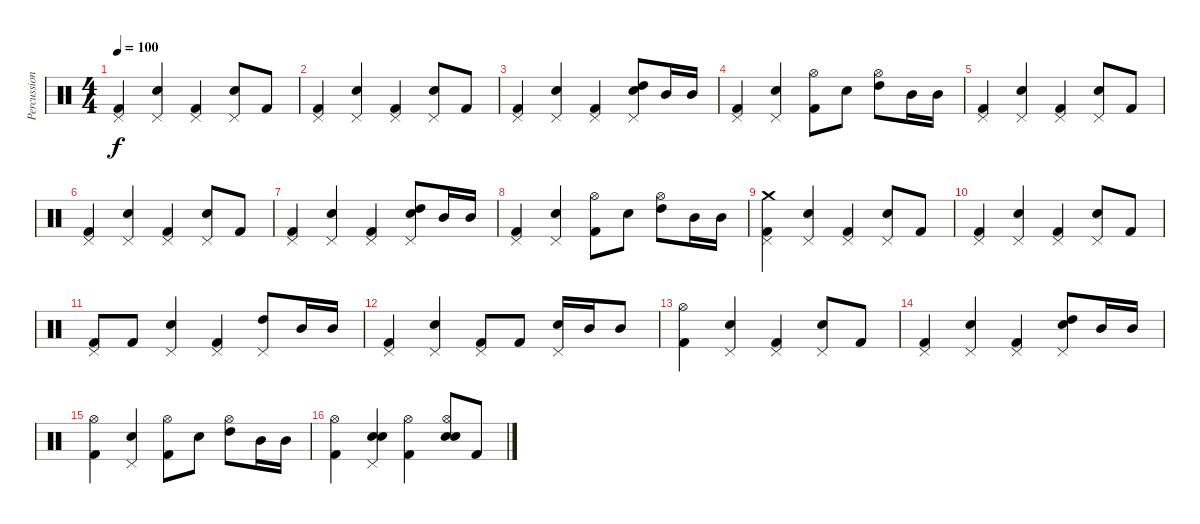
\track ("Percussioni" "Percussion") {instrument percussion}
\staff {score}
\articulation defaults
\ts (4 4)
\tempo 100
\clef neutral
\ks c
("Kick (hit) 2" "Pedal Hi-Hat (hit)").4{dy f} ("Electric Snare (hit)" "Pedal Hi-Hat (hit)").4 ("Kick (hit) 2" "Pedal Hi-Hat (hit)").4 ("Electric Snare (hit)" "Pedal Hi-Hat (hit)").8 "Kick (hit) 2".8 |
("Kick (hit) 2" "Pedal Hi-Hat (hit)").4 ("Electric Snare (hit)" "Pedal Hi-Hat (hit)").4 ("Kick (hit) 2" "Pedal Hi-Hat (hit)").4 ("Electric Snare (hit)" "Pedal Hi-Hat (hit)").8 "Kick (hit) 2".8 |
("Kick (hit) 2" "Pedal Hi-Hat (hit)").4 ("Electric Snare (hit)" "Pedal Hi-Hat (hit)").4 ("Kick (hit) 2" "Pedal Hi-Hat (hit)").4 ("Electric Snare (hit)" "High Tom (hit)" "Pedal Hi-Hat (hit)").8 "Mid Tom (hit)".16 "Mid Tom (hit)".16 |
("Kick (hit) 2" "Pedal Hi-Hat (hit)").4 ("Electric Snare (hit)" "Pedal Hi-Hat (hit)").4 ("Hi-Hat (open)" "Kick (hit) 2").8 "Electric Snare (hit)".8 ("Hi-Hat (open)" "High Tom (hit)").8 "Mid Tom (hit)".16 "Mid Tom (hit)".16 |
("Kick (hit) 2" "Pedal Hi-Hat (hit)").4 ("Electric Snare (hit)" "Pedal Hi-Hat (hit)").4 ("Kick (hit) 2" "Pedal Hi-Hat (hit)").4 ("Electric Snare (hit)" "Pedal Hi-Hat (hit)").8 "Kick (hit) 2".8 |
("Kick (hit) 2" "Pedal Hi-Hat (hit)").4 ("Electric Snare (hit)" "Pedal Hi-Hat (hit)").4 ("Kick (hit) 2" "Pedal Hi-Hat (hit)").4 ("Electric Snare (hit)" "Pedal Hi-Hat (hit)").8 "Kick (hit) 2".8 |
("Kick (hit) 2" "Pedal Hi-Hat (hit)").4 ("Electric Snare (hit)" "Pedal Hi-Hat (hit)").4 ("Kick (hit) 2" "Pedal Hi-Hat (hit)").4 ("Electric Snare (hit)" "High Tom (hit)" "Pedal Hi-Hat (hit)").8 "Mid Tom (hit)".16 "Mid Tom (hit)".16 |
("Kick (hit) 2" "Pedal Hi-Hat (hit)").4 ("Electric Snare (hit)" "Pedal Hi-Hat (hit)").4 ("Hi-Hat (open)" "Kick (hit) 2").8 "Electric Snare (hit)".8 ("Hi-Hat (open)" "High Tom (hit)").8 "Mid Tom (hit)".16 "Mid Tom (hit)".16 |
("Crash medium (hit)" "Kick (hit) 2" "Pedal Hi-Hat (hit)").4 ("Electric Snare (hit)" "Pedal Hi-Hat (hit)").4 ("Kick (hit) 2" "Pedal Hi-Hat (hit)").4 ("Electric Snare (hit)" "Pedal Hi-Hat (hit)").8 "Kick (hit) 2".8 |
("Kick (hit) 2" "Pedal Hi-Hat (hit)").4 ("Electric Snare (hit)" "Pedal Hi-Hat (hit)").4 ("Kick (hit) 2" "Pedal Hi-Hat (hit)").4 ("Electric Snare (hit)" "Pedal Hi-Hat (hit)").8 "Kick (hit) 2".8 |
("Kick (hit) 2" "Pedal Hi-Hat (hit)").8 "Kick (hit) 2".8 ("Electric Snare (hit)" "Pedal Hi-Hat (hit)").4 ("Kick (hit) 2" "Pedal Hi-Hat (hit)").4 ("High Tom (hit)" "Pedal Hi-Hat (hit)").8 "Mid Tom (hit)".16 "Mid Tom (hit)".16 |
("Kick (hit) 2" "Pedal Hi-Hat (hit)").4 ("Electric Snare (hit)" "Pedal Hi-Hat (hit)").4 ("Kick (hit) 2" "Pedal Hi-Hat (hit)").8 "Kick (hit) 2".8 ("Electric Snare (hit)" "Pedal Hi-Hat (hit)").16 "Mid Tom (hit)".16 "Mid Tom (hit)".8 |
("Hi-Hat (open)" "Kick (hit) 2").4 ("Electric Snare (hit)" "Pedal Hi-Hat (hit)").4 ("Kick (hit) 2" "Pedal Hi-Hat (hit)").4 ("Electric Snare (hit)" "Pedal Hi-Hat (hit)").8 "Kick (hit) 2".8 |
("Kick (hit) 2" "Pedal Hi-Hat (hit)").4 ("Electric Snare (hit)" "Pedal Hi-Hat (hit)").4 ("Kick (hit) 2" "Pedal Hi-Hat (hit)").4 ("Electric Snare (hit)" "High Tom (hit)" "Pedal Hi-Hat (hit)").8 "Mid Tom (hit)".16 "Mid Tom (hit)".16 |
("Hi-Hat (open)" "Kick (hit) 2").4 ("Electric Snare (hit)" "Pedal Hi-Hat (hit)").4 ("Hi-Hat (open)" "Kick (hit) 2").8 "Electric Snare (hit)".8 ("Hi-Hat (open)" "High Tom (hit)").8 "Mid Tom (hit)".16 "Mid Tom (hit)".16 |
("Hi-Hat (open)" "Kick (hit) 2").4 ("Snare (hit) 2" "Electric Snare (hit)" "Pedal Hi-Hat (hit)").4 ("Hi-Hat (open)" "Kick (hit) 2").4 ("Hi-Hat (open)" "Snare (hit) 2" "Electric Snare (hit)").8 "Kick (hit) 2".8
